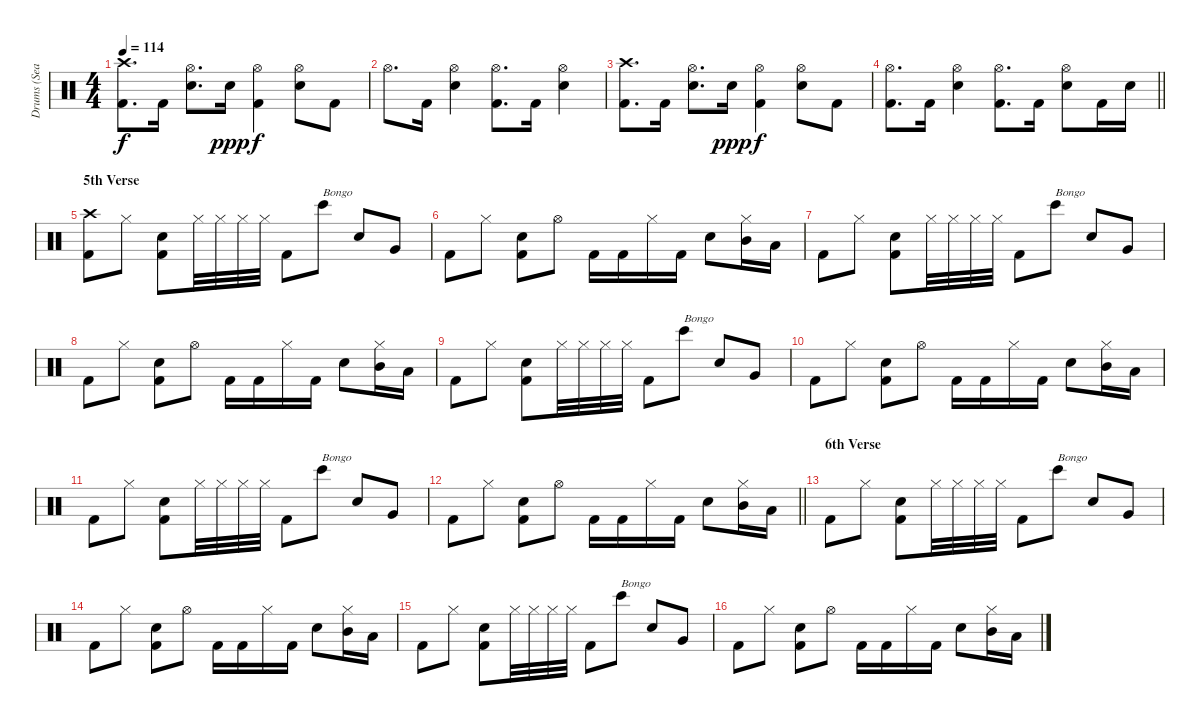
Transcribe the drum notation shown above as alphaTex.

\track ("Drums (Sean)" "Drums (Sea") {instrument percussion}
\staff {score}
\articulation defaults
\ts (4 4)
\tempo 114
\clef neutral
\ks c
("Crash high (hit)" "Kick (hit) 2").8{d dy f} "Kick (hit) 2".16 ("Hi-Hat (open)" "Snare (hit) 2").8{d} "Snare (hit) 2".16{dy ppp} ("Hi-Hat (open)" "Kick (hit) 2").4{dy f} ("Hi-Hat (open)" "Snare (hit) 2").8 "Kick (hit) 2".8 |
"Hi-Hat (open)".8{d} "Kick (hit) 2".16 ("Hi-Hat (open)" "Snare (hit) 2").4 ("Hi-Hat (open)" "Kick (hit) 2").8{d} "Kick (hit) 2".16 ("Hi-Hat (open)" "Snare (hit) 2").4 |
("Crash high (hit)" "Kick (hit) 2").8{d} "Kick (hit) 2".16 ("Hi-Hat (open)" "Snare (hit) 2").8{d} "Snare (hit) 2".16{dy ppp} ("Hi-Hat (open)" "Kick (hit) 2").4{dy f} ("Hi-Hat (open)" "Snare (hit) 2").8 "Kick (hit) 2".8 |
\barLineRight lightlight
("Hi-Hat (open)" "Kick (hit) 2").8{d} "Kick (hit) 2".16 ("Hi-Hat (open)" "Snare (hit) 2").4 ("Hi-Hat (open)" "Kick (hit) 2").8{d} "Kick (hit) 2".16 ("Hi-Hat (open)" "Snare (hit) 2").8 "Kick (hit) 2".16 "Snare (hit) 2".16 |
\section ("" "5th Verse")
("Crash high (hit)" "Kick (hit) 2").8 "Hi-Hat (closed)".8 ("Snare (hit) 2" "Kick (hit) 2").8 "Hi-Hat (closed)".32 "Hi-Hat (closed)".32 "Hi-Hat (closed)".32 "Hi-Hat (closed)".32 "Kick (hit) 2".8 "Bongo High (hit)".8{txt "Bongo"} "Snare (hit) 2".8 "Very Low Tom (hit)".8 |
"Kick (hit) 2".8 "Hi-Hat (closed)".8 ("Snare (hit) 2" "Kick (hit) 2").8 "Hi-Hat (open)".8 "Kick (hit) 2".16 "Kick (hit) 2".16 "Hi-Hat (closed)".16 "Kick (hit) 2".16 "Snare (hit) 2".8 ("Hi-Hat (closed)" "Mid Tom (hit)").16 "Low Tom (hit)".16 |
"Kick (hit) 2".8 "Hi-Hat (closed)".8 ("Snare (hit) 2" "Kick (hit) 2").8 "Hi-Hat (closed)".32 "Hi-Hat (closed)".32 "Hi-Hat (closed)".32 "Hi-Hat (closed)".32 "Kick (hit) 2".8 "Bongo High (hit)".8{txt "Bongo"} "Snare (hit) 2".8 "Very Low Tom (hit)".8 |
"Kick (hit) 2".8 "Hi-Hat (closed)".8 ("Snare (hit) 2" "Kick (hit) 2").8 "Hi-Hat (open)".8 "Kick (hit) 2".16 "Kick (hit) 2".16 "Hi-Hat (closed)".16 "Kick (hit) 2".16 "Snare (hit) 2".8 ("Hi-Hat (closed)" "Mid Tom (hit)").16 "Low Tom (hit)".16 |
"Kick (hit) 2".8 "Hi-Hat (closed)".8 ("Snare (hit) 2" "Kick (hit) 2").8 "Hi-Hat (closed)".32 "Hi-Hat (closed)".32 "Hi-Hat (closed)".32 "Hi-Hat (closed)".32 "Kick (hit) 2".8 "Bongo High (hit)".8{txt "Bongo"} "Snare (hit) 2".8 "Very Low Tom (hit)".8 |
"Kick (hit) 2".8 "Hi-Hat (closed)".8 ("Snare (hit) 2" "Kick (hit) 2").8 "Hi-Hat (open)".8 "Kick (hit) 2".16 "Kick (hit) 2".16 "Hi-Hat (closed)".16 "Kick (hit) 2".16 "Snare (hit) 2".8 ("Hi-Hat (closed)" "Mid Tom (hit)").16 "Low Tom (hit)".16 |
"Kick (hit) 2".8 "Hi-Hat (closed)".8 ("Snare (hit) 2" "Kick (hit) 2").8 "Hi-Hat (closed)".32 "Hi-Hat (closed)".32 "Hi-Hat (closed)".32 "Hi-Hat (closed)".32 "Kick (hit) 2".8 "Bongo High (hit)".8{txt "Bongo"} "Snare (hit) 2".8 "Very Low Tom (hit)".8 |
\barLineRight lightlight "Kick (hit) 2".8 "Hi-Hat (closed)".8
("Snare (hit) 2" "Kick (hit) 2").8 "Hi-Hat (open)".8 "Kick (hit) 2".16 "Kick (hit) 2".16 "Hi-Hat (closed)".16 "Kick (hit) 2".16 "Snare (hit) 2".8 ("Hi-Hat (closed)" "Mid Tom (hit)").16 "Low Tom (hit)".16 |
\section ("" "6th Verse")
"Kick (hit) 2".8 "Hi-Hat (closed)".8 ("Snare (hit) 2" "Kick (hit) 2").8 "Hi-Hat (closed)".32 "Hi-Hat (closed)".32 "Hi-Hat (closed)".32 "Hi-Hat (closed)".32 "Kick (hit) 2".8 "Bongo High (hit)".8{txt "Bongo"} "Snare (hit) 2".8 "Very Low Tom (hit)".8 |
"Kick (hit) 2".8 "Hi-Hat (closed)".8 ("Snare (hit) 2" "Kick (hit) 2").8 "Hi-Hat (open)".8 "Kick (hit) 2".16 "Kick (hit) 2".16 "Hi-Hat (closed)".16 "Kick (hit) 2".16 "Snare (hit) 2".8 ("Hi-Hat (closed)" "Mid Tom (hit)").16 "Low Tom (hit)".16 |
"Kick (hit) 2".8 "Hi-Hat (closed)".8 ("Snare (hit) 2" "Kick (hit) 2").8 "Hi-Hat (closed)".32 "Hi-Hat (closed)".32 "Hi-Hat (closed)".32 "Hi-Hat (closed)".32 "Kick (hit) 2".8 "Bongo High (hit)".8{txt "Bongo"} "Snare (hit) 2".8 "Very Low Tom (hit)".8 |
"Kick (hit) 2".8 "Hi-Hat (closed)".8 ("Snare (hit) 2" "Kick (hit) 2").8 "Hi-Hat (open)".8 "Kick (hit) 2".16 "Kick (hit) 2".16 "Hi-Hat (closed)".16 "Kick (hit) 2".16 "Snare (hit) 2".8 ("Hi-Hat (closed)" "Mid Tom (hit)").16 "Low Tom (hit)".16
